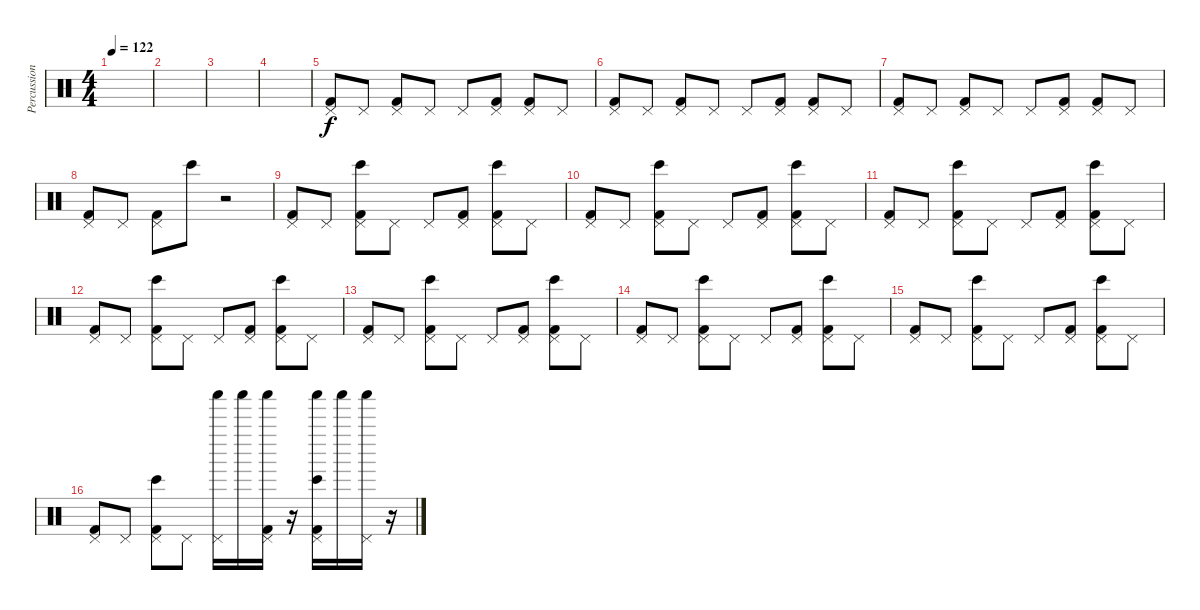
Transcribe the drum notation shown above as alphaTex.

\track ("Percussion" "Percussion") {instrument percussion}
\staff {score}
\articulation defaults
\ts (4 4)
\tempo 122
\clef neutral
\ks c
|
|
|
|
("Pedal Hi-Hat (hit)" "Kick (hit) 2").8{volume 10} "Pedal Hi-Hat (hit)".8 ("Pedal Hi-Hat (hit)" "Kick (hit) 2").8 "Pedal Hi-Hat (hit)".8 "Pedal Hi-Hat (hit)".8 ("Pedal Hi-Hat (hit)" "Kick (hit) 2").8 ("Pedal Hi-Hat (hit)" "Kick (hit) 2").8 "Pedal Hi-Hat (hit)".8 |
("Pedal Hi-Hat (hit)" "Kick (hit) 2").8 "Pedal Hi-Hat (hit)".8 ("Pedal Hi-Hat (hit)" "Kick (hit) 2").8 "Pedal Hi-Hat (hit)".8 "Pedal Hi-Hat (hit)".8 ("Pedal Hi-Hat (hit)" "Kick (hit) 2").8 ("Pedal Hi-Hat (hit)" "Kick (hit) 2").8 "Pedal Hi-Hat (hit)".8 |
("Pedal Hi-Hat (hit)" "Kick (hit) 2").8 "Pedal Hi-Hat (hit)".8 ("Pedal Hi-Hat (hit)" "Kick (hit) 2").8 "Pedal Hi-Hat (hit)".8 "Pedal Hi-Hat (hit)".8 ("Pedal Hi-Hat (hit)" "Kick (hit) 2").8 ("Pedal Hi-Hat (hit)" "Kick (hit) 2").8 "Pedal Hi-Hat (hit)".8 |
("Pedal Hi-Hat (hit)" "Kick (hit) 2").8 "Pedal Hi-Hat (hit)".8 ("Pedal Hi-Hat (hit)" "Kick (hit) 2").8 "Bongo High (hit)".8 r.2 |
("Pedal Hi-Hat (hit)" "Kick (hit) 2").8 "Pedal Hi-Hat (hit)".8 ("Pedal Hi-Hat (hit)" "Bongo High (hit)" "Kick (hit) 2").8 "Pedal Hi-Hat (hit)".8 "Pedal Hi-Hat (hit)".8 ("Pedal Hi-Hat (hit)" "Kick (hit) 2").8 ("Pedal Hi-Hat (hit)" "Bongo High (hit)" "Kick (hit) 2").8 "Pedal Hi-Hat (hit)".8 |
("Pedal Hi-Hat (hit)" "Kick (hit) 2").8 "Pedal Hi-Hat (hit)".8 ("Pedal Hi-Hat (hit)" "Bongo High (hit)" "Kick (hit) 2").8 "Pedal Hi-Hat (hit)".8 "Pedal Hi-Hat (hit)".8 ("Pedal Hi-Hat (hit)" "Kick (hit) 2").8 ("Pedal Hi-Hat (hit)" "Bongo High (hit)" "Kick (hit) 2").8 "Pedal Hi-Hat (hit)".8 |
("Pedal Hi-Hat (hit)" "Kick (hit) 2").8 "Pedal Hi-Hat (hit)".8 ("Pedal Hi-Hat (hit)" "Bongo High (hit)" "Kick (hit) 2").8 "Pedal Hi-Hat (hit)".8 "Pedal Hi-Hat (hit)".8 ("Pedal Hi-Hat (hit)" "Kick (hit) 2").8 ("Pedal Hi-Hat (hit)" "Bongo High (hit)" "Kick (hit) 2").8 "Pedal Hi-Hat (hit)".8 |
("Pedal Hi-Hat (hit)" "Kick (hit) 2").8 "Pedal Hi-Hat (hit)".8 ("Pedal Hi-Hat (hit)" "Bongo High (hit)" "Kick (hit) 2").8 "Pedal Hi-Hat (hit)".8 "Pedal Hi-Hat (hit)".8 ("Pedal Hi-Hat (hit)" "Kick (hit) 2").8 ("Pedal Hi-Hat (hit)" "Bongo High (hit)" "Kick (hit) 2").8 "Pedal Hi-Hat (hit)".8 |
("Pedal Hi-Hat (hit)" "Kick (hit) 2").8 "Pedal Hi-Hat (hit)".8 ("Pedal Hi-Hat (hit)" "Bongo High (hit)" "Kick (hit) 2").8 "Pedal Hi-Hat (hit)".8 "Pedal Hi-Hat (hit)".8 ("Pedal Hi-Hat (hit)" "Kick (hit) 2").8 ("Pedal Hi-Hat (hit)" "Bongo High (hit)" "Kick (hit) 2").8 "Pedal Hi-Hat (hit)".8 |
("Pedal Hi-Hat (hit)" "Kick (hit) 2").8 "Pedal Hi-Hat (hit)".8 ("Pedal Hi-Hat (hit)" "Bongo High (hit)" "Kick (hit) 2").8 "Pedal Hi-Hat (hit)".8 "Pedal Hi-Hat (hit)".8 ("Pedal Hi-Hat (hit)" "Kick (hit) 2").8 ("Pedal Hi-Hat (hit)" "Bongo High (hit)" "Kick (hit) 2").8 "Pedal Hi-Hat (hit)".8 |
("Pedal Hi-Hat (hit)" "Kick (hit) 2").8 "Pedal Hi-Hat (hit)".8 ("Pedal Hi-Hat (hit)" "Bongo High (hit)" "Kick (hit) 2").8 "Pedal Hi-Hat (hit)".8 "Pedal Hi-Hat (hit)".8 ("Pedal Hi-Hat (hit)" "Kick (hit) 2").8 ("Pedal Hi-Hat (hit)" "Bongo High (hit)" "Kick (hit) 2").8 "Pedal Hi-Hat (hit)".8 |
("Pedal Hi-Hat (hit)" "Kick (hit) 2").8 "Pedal Hi-Hat (hit)".8 ("Pedal Hi-Hat (hit)" "Bongo High (hit)" "Kick (hit) 2").8 "Pedal Hi-Hat (hit)".8 ("Pedal Hi-Hat (hit)" "Shaker (hit)").16 "Shaker (hit)".16 ("Pedal Hi-Hat (hit)" "Shaker (hit)" "Kick (hit) 2").16 r.16 ("Pedal Hi-Hat (hit)" "Bongo High (hit)" "Shaker (hit)" "Kick (hit) 2").16 "Shaker (hit)".16 ("Pedal Hi-Hat (hit)" "Shaker (hit)").16 r.16
